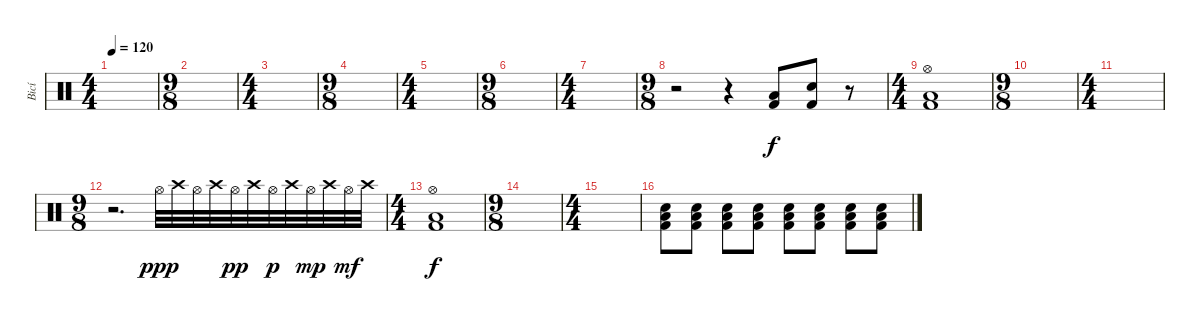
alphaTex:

\track ("Bicí" "Bicí") {instrument percussion}
\staff {score}
\articulation defaults
\ts (4 4)
\tempo 120
\clef neutral
\ks c
|
\ts (9 8)
|
\ts (4 4)
|
\ts (9 8)
|
\ts (4 4)
|
\ts (9 8)
|
\ts (4 4)
|
\ts (9 8)
r.2 r.4 ("Low Floor Tom (hit)" "Kick (hit) 2").8 ("Snare (hit)" "Kick (hit) 2").8 r.8 |
\ts (4 4)
("Low Floor Tom (hit)" "Hi-Hat (open)" "Kick (hit) 2").1 |
\ts (9 8)
|
\ts (4 4)
|
\ts (9 8)
r.2{d} "Hi-Hat (open)".32{dy ppp} "Crash high (hit)".32 "Hi-Hat (open)".32 "Crash high (hit)".32 "Hi-Hat (open)".32{dy pp} "Crash high (hit)".32 "Hi-Hat (open)".32{dy p} "Crash high (hit)".32 "Hi-Hat (open)".32{dy mp} "Crash high (hit)".32 "Hi-Hat (open)".32{dy mf} "Crash high (hit)".32 |
\ts (4 4)
("Low Floor Tom (hit)" "Hi-Hat (open)" "Kick (hit) 2").1{dy f} |
\ts (9 8)
|
\ts (4 4)
|
("Electric Snare (hit)" "Low Floor Tom (hit)" "Kick (hit) 2").8 ("Electric Snare (hit)" "Low Floor Tom (hit)" "Kick (hit) 2").8 ("Electric Snare (hit)" "Low Floor Tom (hit)" "Kick (hit) 2").8 ("Electric Snare (hit)" "Low Floor Tom (hit)" "Kick (hit) 2").8 ("Electric Snare (hit)" "Low Floor Tom (hit)" "Kick (hit) 2").8 ("Electric Snare (hit)" "Low Floor Tom (hit)" "Kick (hit) 2").8 ("Electric Snare (hit)" "Low Floor Tom (hit)" "Kick (hit) 2").8 ("Electric Snare (hit)" "Low Floor Tom (hit)" "Kick (hit) 2").8
